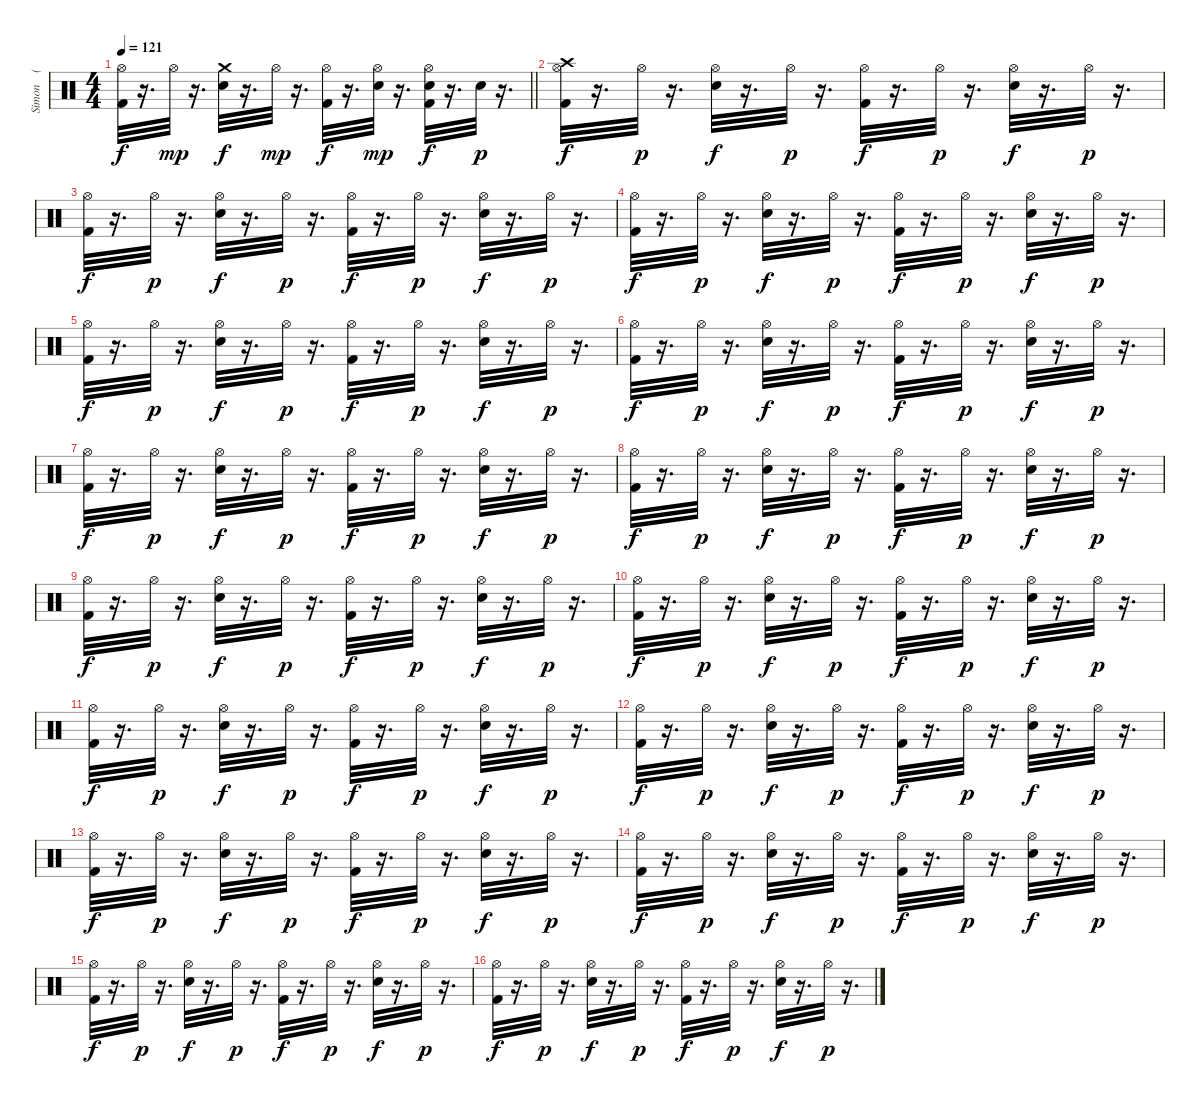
\track ("Simon    (Drums)" "Simon    (") {instrument percussion}
\staff {score}
\articulation defaults
\ts (4 4)
\tempo 121
\clef neutral
\barLineRight lightlight
\ks c
("Hi-Hat (open)" "Kick (hit) 2").32{dy f} r.16{d} "Hi-Hat (open)".32{dy mp} r.16{d} ("Crash medium (hit)" "Electric Snare (hit)").32{dy f} r.16{d} "Hi-Hat (open)".32{dy mp} r.16{d} ("Hi-Hat (open)" "Kick (hit) 2").32{dy f} r.16{d} ("Electric Snare (hit)" "Hi-Hat (open)").32{dy mp} r.16{d} ("Hi-Hat (open)" "Kick (hit) 2" "Electric Snare (hit)").32{dy f} r.16{d} "Electric Snare (hit)".32{dy p} r.16{d} |
("Crash high (hit)" "Hi-Hat (open)" "Kick (hit) 2").32{dy f} r.16{d} "Hi-Hat (open)".32{dy p} r.16{d} ("Hi-Hat (open)" "Electric Snare (hit)").32{dy f} r.16{d} "Hi-Hat (open)".32{dy p} r.16{d} ("Hi-Hat (open)" "Kick (hit) 2").32{dy f} r.16{d} "Hi-Hat (open)".32{dy p} r.16{d} ("Hi-Hat (open)" "Electric Snare (hit)").32{dy f} r.16{d} "Hi-Hat (open)".32{dy p} r.16{d} |
("Hi-Hat (open)" "Kick (hit) 2").32{dy f} r.16{d} "Hi-Hat (open)".32{dy p} r.16{d} ("Hi-Hat (open)" "Electric Snare (hit)").32{dy f} r.16{d} "Hi-Hat (open)".32{dy p} r.16{d} ("Hi-Hat (open)" "Kick (hit) 2").32{dy f} r.16{d} "Hi-Hat (open)".32{dy p} r.16{d} ("Hi-Hat (open)" "Electric Snare (hit)").32{dy f} r.16{d} "Hi-Hat (open)".32{dy p} r.16{d} |
("Hi-Hat (open)" "Kick (hit) 2").32{dy f} r.16{d} "Hi-Hat (open)".32{dy p} r.16{d} ("Hi-Hat (open)" "Electric Snare (hit)").32{dy f} r.16{d} "Hi-Hat (open)".32{dy p} r.16{d} ("Hi-Hat (open)" "Kick (hit) 2").32{dy f} r.16{d} "Hi-Hat (open)".32{dy p} r.16{d} ("Hi-Hat (open)" "Electric Snare (hit)").32{dy f} r.16{d} "Hi-Hat (open)".32{dy p} r.16{d} |
("Hi-Hat (open)" "Kick (hit) 2").32{dy f} r.16{d} "Hi-Hat (open)".32{dy p} r.16{d} ("Hi-Hat (open)" "Electric Snare (hit)").32{dy f} r.16{d} "Hi-Hat (open)".32{dy p} r.16{d} ("Hi-Hat (open)" "Kick (hit) 2").32{dy f} r.16{d} "Hi-Hat (open)".32{dy p} r.16{d} ("Hi-Hat (open)" "Electric Snare (hit)").32{dy f} r.16{d} "Hi-Hat (open)".32{dy p} r.16{d} |
("Hi-Hat (open)" "Kick (hit) 2").32{dy f} r.16{d} "Hi-Hat (open)".32{dy p} r.16{d} ("Hi-Hat (open)" "Electric Snare (hit)").32{dy f} r.16{d} "Hi-Hat (open)".32{dy p} r.16{d} ("Hi-Hat (open)" "Kick (hit) 2").32{dy f} r.16{d} "Hi-Hat (open)".32{dy p} r.16{d} ("Hi-Hat (open)" "Electric Snare (hit)").32{dy f} r.16{d} "Hi-Hat (open)".32{dy p} r.16{d} |
("Hi-Hat (open)" "Kick (hit) 2").32{dy f} r.16{d} "Hi-Hat (open)".32{dy p} r.16{d} ("Hi-Hat (open)" "Electric Snare (hit)").32{dy f} r.16{d} "Hi-Hat (open)".32{dy p} r.16{d} ("Hi-Hat (open)" "Kick (hit) 2").32{dy f} r.16{d} "Hi-Hat (open)".32{dy p} r.16{d} ("Hi-Hat (open)" "Electric Snare (hit)").32{dy f} r.16{d} "Hi-Hat (open)".32{dy p} r.16{d} |
("Hi-Hat (open)" "Kick (hit) 2").32{dy f} r.16{d} "Hi-Hat (open)".32{dy p} r.16{d} ("Hi-Hat (open)" "Electric Snare (hit)").32{dy f} r.16{d} "Hi-Hat (open)".32{dy p} r.16{d} ("Hi-Hat (open)" "Kick (hit) 2").32{dy f} r.16{d} "Hi-Hat (open)".32{dy p} r.16{d} ("Hi-Hat (open)" "Electric Snare (hit)").32{dy f} r.16{d} "Hi-Hat (open)".32{dy p} r.16{d} |
("Hi-Hat (open)" "Kick (hit) 2").32{dy f} r.16{d} "Hi-Hat (open)".32{dy p} r.16{d} ("Hi-Hat (open)" "Electric Snare (hit)").32{dy f} r.16{d} "Hi-Hat (open)".32{dy p} r.16{d} ("Hi-Hat (open)" "Kick (hit) 2").32{dy f} r.16{d} "Hi-Hat (open)".32{dy p} r.16{d} ("Hi-Hat (open)" "Electric Snare (hit)").32{dy f} r.16{d} "Hi-Hat (open)".32{dy p} r.16{d} |
("Hi-Hat (open)" "Kick (hit) 2").32{dy f} r.16{d} "Hi-Hat (open)".32{dy p} r.16{d} ("Hi-Hat (open)" "Electric Snare (hit)").32{dy f} r.16{d} "Hi-Hat (open)".32{dy p} r.16{d} ("Hi-Hat (open)" "Kick (hit) 2").32{dy f} r.16{d} "Hi-Hat (open)".32{dy p} r.16{d} ("Hi-Hat (open)" "Electric Snare (hit)").32{dy f} r.16{d} "Hi-Hat (open)".32{dy p} r.16{d} |
("Hi-Hat (open)" "Kick (hit) 2").32{dy f} r.16{d} "Hi-Hat (open)".32{dy p} r.16{d} ("Hi-Hat (open)" "Electric Snare (hit)").32{dy f} r.16{d} "Hi-Hat (open)".32{dy p} r.16{d} ("Hi-Hat (open)" "Kick (hit) 2").32{dy f} r.16{d} "Hi-Hat (open)".32{dy p} r.16{d} ("Hi-Hat (open)" "Electric Snare (hit)").32{dy f} r.16{d} "Hi-Hat (open)".32{dy p} r.16{d} |
("Hi-Hat (open)" "Kick (hit) 2").32{dy f} r.16{d} "Hi-Hat (open)".32{dy p} r.16{d} ("Hi-Hat (open)" "Electric Snare (hit)").32{dy f} r.16{d} "Hi-Hat (open)".32{dy p} r.16{d} ("Hi-Hat (open)" "Kick (hit) 2").32{dy f} r.16{d} "Hi-Hat (open)".32{dy p} r.16{d} ("Hi-Hat (open)" "Electric Snare (hit)").32{dy f} r.16{d} "Hi-Hat (open)".32{dy p} r.16{d} |
("Hi-Hat (open)" "Kick (hit) 2").32{dy f} r.16{d} "Hi-Hat (open)".32{dy p} r.16{d} ("Hi-Hat (open)" "Electric Snare (hit)").32{dy f} r.16{d} "Hi-Hat (open)".32{dy p} r.16{d} ("Hi-Hat (open)" "Kick (hit) 2").32{dy f} r.16{d} "Hi-Hat (open)".32{dy p} r.16{d} ("Hi-Hat (open)" "Electric Snare (hit)").32{dy f} r.16{d} "Hi-Hat (open)".32{dy p} r.16{d} |
("Hi-Hat (open)" "Kick (hit) 2").32{dy f} r.16{d} "Hi-Hat (open)".32{dy p} r.16{d} ("Hi-Hat (open)" "Electric Snare (hit)").32{dy f} r.16{d} "Hi-Hat (open)".32{dy p} r.16{d} ("Hi-Hat (open)" "Kick (hit) 2").32{dy f} r.16{d} "Hi-Hat (open)".32{dy p} r.16{d} ("Hi-Hat (open)" "Electric Snare (hit)").32{dy f} r.16{d} "Hi-Hat (open)".32{dy p} r.16{d} |
("Hi-Hat (open)" "Kick (hit) 2").32{dy f} r.16{d} "Hi-Hat (open)".32{dy p} r.16{d} ("Hi-Hat (open)" "Electric Snare (hit)").32{dy f} r.16{d} "Hi-Hat (open)".32{dy p} r.16{d} ("Hi-Hat (open)" "Kick (hit) 2").32{dy f} r.16{d} "Hi-Hat (open)".32{dy p} r.16{d} ("Hi-Hat (open)" "Electric Snare (hit)").32{dy f} r.16{d} "Hi-Hat (open)".32{dy p} r.16{d} |
("Hi-Hat (open)" "Kick (hit) 2").32{dy f} r.16{d} "Hi-Hat (open)".32{dy p} r.16{d} ("Hi-Hat (open)" "Electric Snare (hit)").32{dy f} r.16{d} "Hi-Hat (open)".32{dy p} r.16{d} ("Hi-Hat (open)" "Kick (hit) 2").32{dy f} r.16{d} "Hi-Hat (open)".32{dy p} r.16{d} ("Hi-Hat (open)" "Electric Snare (hit)").32{dy f} r.16{d} "Hi-Hat (open)".32{dy p} r.16{d}
